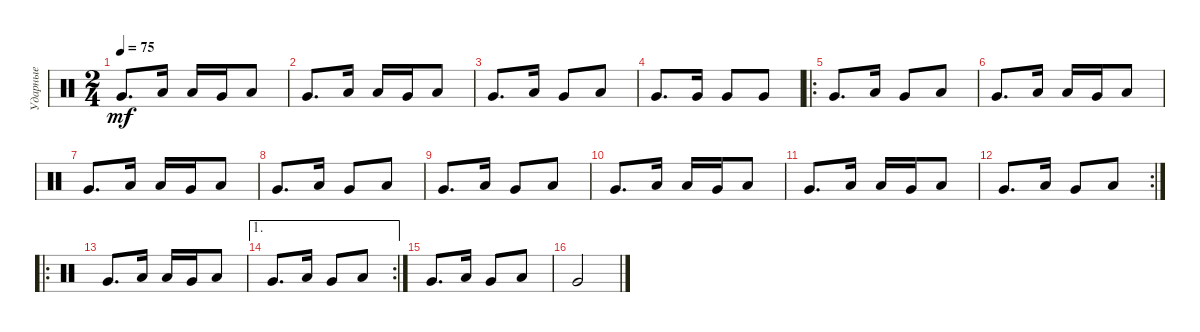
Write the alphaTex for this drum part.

\track ("Ударные" "Ударные") {instrument percussion}
\staff {score}
\articulation defaults
\ts (2 4)
\tempo 75
\clef neutral
\ks c "Very Low Tom (hit)".8{d dy mf} "Low Tom (hit)".16 "Low Floor Tom (hit)".16 "Very Low Tom (hit)".16 "Low Tom (hit)".8
|
"Very Low Tom (hit)".8{d} "Low Tom (hit)".16 "Low Floor Tom (hit)".16 "Very Low Tom (hit)".16 "Low Tom (hit)".8 |
"Very Low Tom (hit)".8{d} "Low Tom (hit)".16 "Very Low Tom (hit)".8 "Low Tom (hit)".8 |
"Very Low Tom (hit)".8{d} "Very Low Tom (hit)".16 "Very Low Tom (hit)".8 "Very Low Tom (hit)".8 |
\ro "Very Low Tom (hit)".8{d} "Low Tom (hit)".16 "Very Low Tom (hit)".8 "Low Tom (hit)".8
|
"Very Low Tom (hit)".8{d} "Low Tom (hit)".16 "Low Floor Tom (hit)".16 "Very Low Tom (hit)".16 "Low Tom (hit)".8 |
"Very Low Tom (hit)".8{d} "Low Tom (hit)".16 "Low Floor Tom (hit)".16 "Very Low Tom (hit)".16 "Low Tom (hit)".8 |
"Very Low Tom (hit)".8{d} "Low Tom (hit)".16 "Very Low Tom (hit)".8 "Low Tom (hit)".8 |
"Very Low Tom (hit)".8{d} "Low Tom (hit)".16 "Very Low Tom (hit)".8 "Low Tom (hit)".8 |
"Very Low Tom (hit)".8{d} "Low Tom (hit)".16 "Low Floor Tom (hit)".16 "Very Low Tom (hit)".16 "Low Tom (hit)".8 |
"Very Low Tom (hit)".8{d} "Low Tom (hit)".16 "Low Floor Tom (hit)".16 "Very Low Tom (hit)".16 "Low Tom (hit)".8 |
\rc 2 "Very Low Tom (hit)".8{d} "Low Tom (hit)".16 "Very Low Tom (hit)".8 "Low Tom (hit)".8
|
\ro "Very Low Tom (hit)".8{d} "Low Tom (hit)".16 "Low Floor Tom (hit)".16 "Very Low Tom (hit)".16 "Low Tom (hit)".8
|
\ae 1
\rc 2 "Very Low Tom (hit)".8{d} "Low Tom (hit)".16 "Very Low Tom (hit)".8 "Low Tom (hit)".8
|
"Very Low Tom (hit)".8{d} "Low Tom (hit)".16 "Very Low Tom (hit)".8 "Low Tom (hit)".8 |
"Very Low Tom (hit)".2
